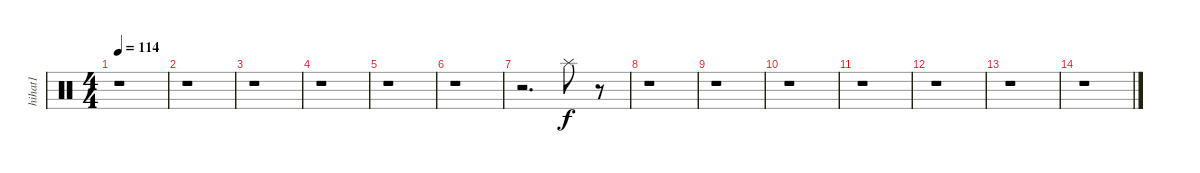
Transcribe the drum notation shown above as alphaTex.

\track ("hihat1              " "hihat1    ") {instrument percussion}
\staff {score}
\articulation defaults
\ts (4 4)
\tempo 114
\clef neutral
\ks c
r.1{dy f} |
r.1 |
r.1 |
r.1 |
r.1 |
r.1 |
r.2{d} "Splash (hit)".8 r.8 |
r.1 |
r.1 |
r.1 |
r.1 |
r.1 |
r.1 |
r.1
